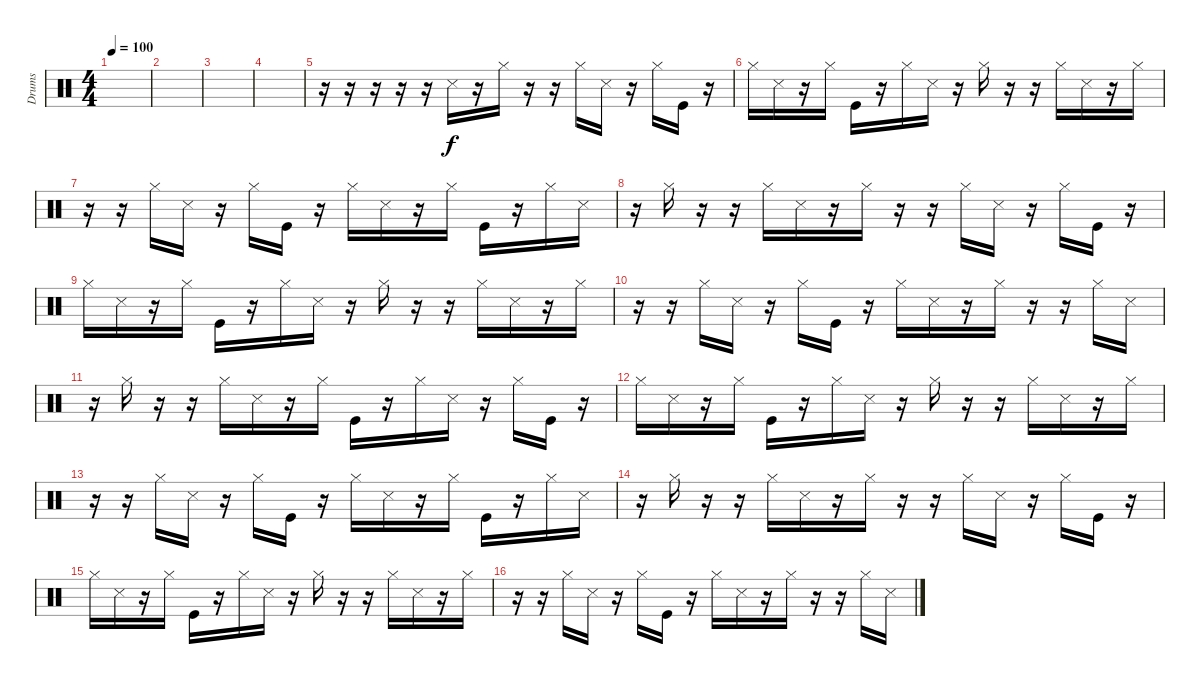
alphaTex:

\track ("Drums" "Drums") {instrument percussion}
\staff {score}
\articulation defaults
\ts (4 4)
\tempo 100
\clef neutral
\ks c
|
|
|
|
r.16 r.16 r.16 r.16 r.16 "Snare (side stick) 3".16 r.16 "Hi-Hat (closed)".16 r.16 r.16 "Hi-Hat (closed)".16 "Snare (side stick) 3".16 r.16 "Hi-Hat (closed)".16 "Kick (hit)".16 r.16 |
"Hi-Hat (closed)".16 "Snare (side stick) 3".16 r.16 "Hi-Hat (closed)".16 "Kick (hit)".16 r.16 "Hi-Hat (closed)".16 "Snare (side stick) 3".16 r.16 "Hi-Hat (closed)".16 r.16 r.16 "Hi-Hat (closed)".16 "Snare (side stick) 3".16 r.16 "Hi-Hat (closed)".16 |
r.16 r.16 "Hi-Hat (closed)".16 "Snare (side stick) 3".16 r.16 "Hi-Hat (closed)".16 "Kick (hit)".16 r.16 "Hi-Hat (closed)".16 "Snare (side stick) 3".16 r.16 "Hi-Hat (closed)".16 "Kick (hit)".16 r.16 "Hi-Hat (closed)".16 "Snare (side stick) 3".16 |
r.16 "Hi-Hat (closed)".16 r.16 r.16 "Hi-Hat (closed)".16 "Snare (side stick) 3".16 r.16 "Hi-Hat (closed)".16 r.16 r.16 "Hi-Hat (closed)".16 "Snare (side stick) 3".16 r.16 "Hi-Hat (closed)".16 "Kick (hit)".16 r.16 |
"Hi-Hat (closed)".16 "Snare (side stick) 3".16 r.16 "Hi-Hat (closed)".16 "Kick (hit)".16 r.16 "Hi-Hat (closed)".16 "Snare (side stick) 3".16 r.16 "Hi-Hat (closed)".16 r.16 r.16 "Hi-Hat (closed)".16 "Snare (side stick) 3".16 r.16 "Hi-Hat (closed)".16 |
r.16 r.16 "Hi-Hat (closed)".16 "Snare (side stick) 3".16 r.16 "Hi-Hat (closed)".16 "Kick (hit)".16 r.16 "Hi-Hat (closed)".16 "Snare (side stick) 3".16 r.16 "Hi-Hat (closed)".16 r.16 r.16 "Hi-Hat (closed)".16 "Snare (side stick) 3".16 |
r.16 "Hi-Hat (closed)".16 r.16 r.16 "Hi-Hat (closed)".16 "Snare (side stick) 3".16 r.16 "Hi-Hat (closed)".16 "Kick (hit)".16 r.16 "Hi-Hat (closed)".16 "Snare (side stick) 3".16 r.16 "Hi-Hat (closed)".16 "Kick (hit)".16 r.16 |
"Hi-Hat (closed)".16 "Snare (side stick) 3".16 r.16 "Hi-Hat (closed)".16 "Kick (hit)".16 r.16 "Hi-Hat (closed)".16 "Snare (side stick) 3".16 r.16 "Hi-Hat (closed)".16 r.16 r.16 "Hi-Hat (closed)".16 "Snare (side stick) 3".16 r.16 "Hi-Hat (closed)".16 |
r.16 r.16 "Hi-Hat (closed)".16 "Snare (side stick) 3".16 r.16 "Hi-Hat (closed)".16 "Kick (hit)".16 r.16 "Hi-Hat (closed)".16 "Snare (side stick) 3".16 r.16 "Hi-Hat (closed)".16 "Kick (hit)".16 r.16 "Hi-Hat (closed)".16 "Snare (side stick) 3".16 |
r.16 "Hi-Hat (closed)".16 r.16 r.16 "Hi-Hat (closed)".16 "Snare (side stick) 3".16 r.16 "Hi-Hat (closed)".16 r.16 r.16 "Hi-Hat (closed)".16 "Snare (side stick) 3".16 r.16 "Hi-Hat (closed)".16 "Kick (hit)".16 r.16 |
"Hi-Hat (closed)".16 "Snare (side stick) 3".16 r.16 "Hi-Hat (closed)".16 "Kick (hit)".16 r.16 "Hi-Hat (closed)".16 "Snare (side stick) 3".16 r.16 "Hi-Hat (closed)".16 r.16 r.16 "Hi-Hat (closed)".16 "Snare (side stick) 3".16 r.16 "Hi-Hat (closed)".16 |
r.16 r.16 "Hi-Hat (closed)".16 "Snare (side stick) 3".16 r.16 "Hi-Hat (closed)".16 "Kick (hit)".16 r.16 "Hi-Hat (closed)".16 "Snare (side stick) 3".16 r.16 "Hi-Hat (closed)".16 r.16 r.16 "Hi-Hat (closed)".16 "Snare (side stick) 3".16
